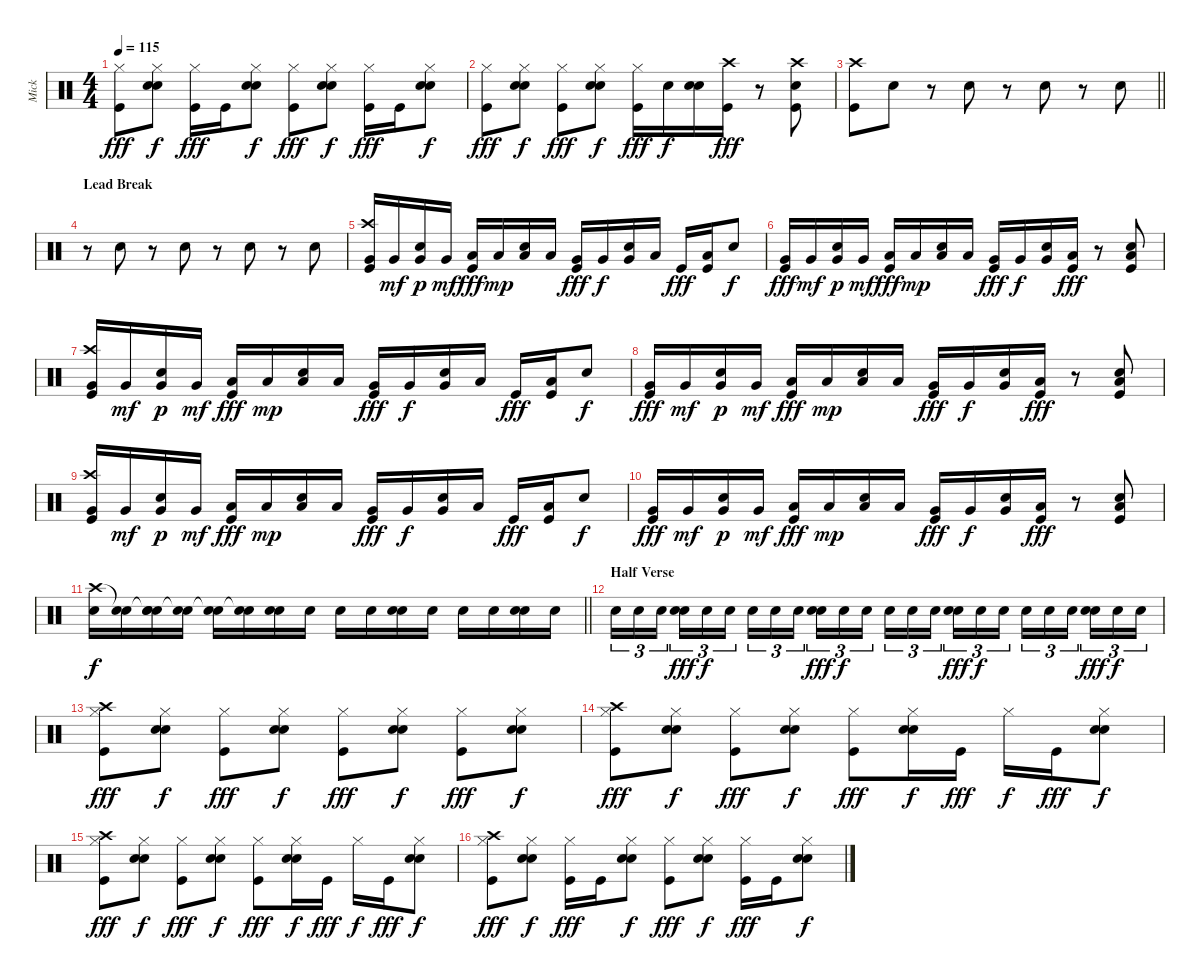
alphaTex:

\track ("Mick" "Mick") {instrument percussion}
\staff {score}
\articulation defaults
\ts (4 4)
\tempo 115
\clef neutral
\ks c
("Hi-Hat (closed)" "Kick (hit)").8{dy fff} ("Hand Clap (hit)" "Hi-Hat (closed)" "Electric Snare (hit)").8{dy f} ("Hi-Hat (closed)" "Kick (hit)").16{dy fff} "Kick (hit)".16 ("Hand Clap (hit)" "Hi-Hat (closed)" "Electric Snare (hit)").8{dy f} ("Hi-Hat (closed)" "Kick (hit)").8{dy fff} ("Hand Clap (hit)" "Hi-Hat (closed)" "Electric Snare (hit)").8{dy f} ("Hi-Hat (closed)" "Kick (hit)").16{dy fff} "Kick (hit)".16 ("Hand Clap (hit)" "Hi-Hat (closed)" "Electric Snare (hit)").8{dy f} |
("Hi-Hat (closed)" "Kick (hit)").8{dy fff} ("Hand Clap (hit)" "Hi-Hat (closed)" "Electric Snare (hit)").8{dy f} ("Hi-Hat (closed)" "Kick (hit)").8{dy fff} ("Hand Clap (hit)" "Hi-Hat (closed)" "Electric Snare (hit)").8{dy f} ("Hi-Hat (closed)" "Kick (hit)").16{dy fff} "Electric Snare (hit)".16{dy f} ("Hand Clap (hit)" "Electric Snare (hit)").16 ("Crash high (hit)" "Kick (hit)").16{dy fff} r.8 ("Crash high (hit)" "Hand Clap (hit)" "Kick (hit)").8 |
\barLineRight lightlight
("Crash high (hit)" "Kick (hit)").8 "Hand Clap (hit)".8 r.8 "Hand Clap (hit)".8 r.8 "Hand Clap (hit)".8 r.8 "Hand Clap (hit)".8 |
\section ("" "Lead Break")
r.8 "Hand Clap (hit)".8 r.8 "Hand Clap (hit)".8 r.8 "Hand Clap (hit)".8 r.8 "Hand Clap (hit)".8 |
("Crash high (hit)" "Very Low Tom (hit)" "Kick (hit)").16 "Very Low Tom (hit)".16{dy mf} ("Hand Clap (hit)" "Very Low Tom (hit)").16{dy p} "Very Low Tom (hit)".16{dy mf} ("Low Floor Tom (hit)" "Kick (hit)").16{dy fff} "Low Floor Tom (hit)".16{dy mp} ("Hand Clap (hit)" "Low Floor Tom (hit)").16 "Low Floor Tom (hit)".16 ("Very Low Tom (hit)" "Kick (hit)").16{dy fff} "Very Low Tom (hit)".16{dy f} ("Hand Clap (hit)" "Very Low Tom (hit)").16 "Low Floor Tom (hit)".16 "Kick (hit)".16{dy fff} ("Low Floor Tom (hit)" "Kick (hit)").16 "Hand Clap (hit)".8{dy f} |
("Very Low Tom (hit)" "Kick (hit)").16{dy fff} "Very Low Tom (hit)".16{dy mf} ("Hand Clap (hit)" "Very Low Tom (hit)").16{dy p} "Very Low Tom (hit)".16{dy mf} ("Low Floor Tom (hit)" "Kick (hit)").16{dy fff} "Low Floor Tom (hit)".16{dy mp} ("Hand Clap (hit)" "Low Floor Tom (hit)").16 "Low Floor Tom (hit)".16 ("Very Low Tom (hit)" "Kick (hit)").16{dy fff} "Very Low Tom (hit)".16{dy f} ("Hand Clap (hit)" "Very Low Tom (hit)").16 ("Low Floor Tom (hit)" "Kick (hit)").16{dy fff} r.8 ("Hand Clap (hit)" "Low Floor Tom (hit)" "Kick (hit)").8 |
("Crash high (hit)" "Very Low Tom (hit)" "Kick (hit)").16 "Very Low Tom (hit)".16{dy mf} ("Hand Clap (hit)" "Very Low Tom (hit)").16{dy p} "Very Low Tom (hit)".16{dy mf} ("Low Floor Tom (hit)" "Kick (hit)").16{dy fff} "Low Floor Tom (hit)".16{dy mp} ("Hand Clap (hit)" "Low Floor Tom (hit)").16 "Low Floor Tom (hit)".16 ("Very Low Tom (hit)" "Kick (hit)").16{dy fff} "Very Low Tom (hit)".16{dy f} ("Hand Clap (hit)" "Very Low Tom (hit)").16 "Low Floor Tom (hit)".16 "Kick (hit)".16{dy fff} ("Low Floor Tom (hit)" "Kick (hit)").16 "Hand Clap (hit)".8{dy f} |
("Very Low Tom (hit)" "Kick (hit)").16{dy fff} "Very Low Tom (hit)".16{dy mf} ("Hand Clap (hit)" "Very Low Tom (hit)").16{dy p} "Very Low Tom (hit)".16{dy mf} ("Low Floor Tom (hit)" "Kick (hit)").16{dy fff} "Low Floor Tom (hit)".16{dy mp} ("Hand Clap (hit)" "Low Floor Tom (hit)").16 "Low Floor Tom (hit)".16 ("Very Low Tom (hit)" "Kick (hit)").16{dy fff} "Very Low Tom (hit)".16{dy f} ("Hand Clap (hit)" "Very Low Tom (hit)").16 ("Low Floor Tom (hit)" "Kick (hit)").16{dy fff} r.8 ("Hand Clap (hit)" "Low Floor Tom (hit)" "Kick (hit)").8 |
("Crash high (hit)" "Very Low Tom (hit)" "Kick (hit)").16 "Very Low Tom (hit)".16{dy mf} ("Hand Clap (hit)" "Very Low Tom (hit)").16{dy p} "Very Low Tom (hit)".16{dy mf} ("Low Floor Tom (hit)" "Kick (hit)").16{dy fff} "Low Floor Tom (hit)".16{dy mp} ("Hand Clap (hit)" "Low Floor Tom (hit)").16 "Low Floor Tom (hit)".16 ("Very Low Tom (hit)" "Kick (hit)").16{dy fff} "Very Low Tom (hit)".16{dy f} ("Hand Clap (hit)" "Very Low Tom (hit)").16 "Low Floor Tom (hit)".16 "Kick (hit)".16{dy fff} ("Low Floor Tom (hit)" "Kick (hit)").16 "Hand Clap (hit)".8{dy f} |
("Very Low Tom (hit)" "Kick (hit)").16{dy fff} "Very Low Tom (hit)".16{dy mf} ("Hand Clap (hit)" "Very Low Tom (hit)").16{dy p} "Very Low Tom (hit)".16{dy mf} ("Low Floor Tom (hit)" "Kick (hit)").16{dy fff} "Low Floor Tom (hit)".16{dy mp} ("Hand Clap (hit)" "Low Floor Tom (hit)").16 "Low Floor Tom (hit)".16 ("Very Low Tom (hit)" "Kick (hit)").16{dy fff} "Very Low Tom (hit)".16{dy f} ("Hand Clap (hit)" "Very Low Tom (hit)").16 ("Low Floor Tom (hit)" "Kick (hit)").16{dy fff} r.8 ("Hand Clap (hit)" "Low Floor Tom (hit)" "Kick (hit)").8 |
\barLineRight lightlight
("Crash high (hit)" "Electric Snare (hit)").16{dy f} ("Snare (hit)"{t} "Electric Snare (hit)").16 ("Hand Clap (hit)"{t} "Hand Clap (hit)" "Electric Snare (hit)").16 ("Snare (hit)"{t} "Electric Snare (hit)").16 ("Snare (hit)"{t} "Electric Snare (hit)").16 ("Snare (hit)"{t} "Electric Snare (hit)").16 ("Hand Clap (hit)" "Electric Snare (hit)").16 "Electric Snare (hit)".16 "Electric Snare (hit)".16 "Electric Snare (hit)".16 ("Hand Clap (hit)" "Electric Snare (hit)").16 "Electric Snare (hit)".16 "Electric Snare (hit)".16 "Electric Snare (hit)".16 ("Hand Clap (hit)" "Electric Snare (hit)").16 "Electric Snare (hit)".16 |
\section ("" "Half Verse")
"Electric Snare (hit)".16{tu (3 2)} "Electric Snare (hit)".16{tu (3 2)} "Electric Snare (hit)".16{tu (3 2) beam splitsecondary} ("Hand Clap (hit)" "Electric Snare (hit)").16{tu (3 2) dy fff} "Electric Snare (hit)".16{tu (3 2) dy f} "Electric Snare (hit)".16{tu (3 2)} "Electric Snare (hit)".16{tu (3 2)} "Electric Snare (hit)".16{tu (3 2)} "Electric Snare (hit)".16{tu (3 2) beam splitsecondary} ("Hand Clap (hit)" "Electric Snare (hit)").16{tu (3 2) dy fff} "Electric Snare (hit)".16{tu (3 2) dy f} "Electric Snare (hit)".16{tu (3 2)} "Electric Snare (hit)".16{tu (3 2)} "Electric Snare (hit)".16{tu (3 2)} "Electric Snare (hit)".16{tu (3 2) beam splitsecondary} ("Hand Clap (hit)" "Electric Snare (hit)").16{tu (3 2) dy fff} "Electric Snare (hit)".16{tu (3 2) dy f} "Electric Snare (hit)".16{tu (3 2)} "Electric Snare (hit)".16{tu (3 2)} "Electric Snare (hit)".16{tu (3 2)} "Electric Snare (hit)".16{tu (3 2) beam splitsecondary} ("Hand Clap (hit)" "Electric Snare (hit)").16{tu (3 2) dy fff} "Electric Snare (hit)".16{tu (3 2) dy f} "Electric Snare (hit)".16{tu (3 2)} |
("Crash high (hit)" "Hi-Hat (closed)" "Kick (hit)").8{dy fff} ("Hand Clap (hit)" "Hi-Hat (closed)" "Electric Snare (hit)").8{dy f} ("Hi-Hat (closed)" "Kick (hit)").8{dy fff} ("Hand Clap (hit)" "Hi-Hat (closed)" "Electric Snare (hit)").8{dy f} ("Hi-Hat (closed)" "Kick (hit)").8{dy fff} ("Hand Clap (hit)" "Hi-Hat (closed)" "Electric Snare (hit)").8{dy f} ("Hi-Hat (closed)" "Kick (hit)").8{dy fff} ("Hand Clap (hit)" "Hi-Hat (closed)" "Electric Snare (hit)").8{dy f} |
("Crash high (hit)" "Hi-Hat (closed)" "Kick (hit)").8{dy fff} ("Hand Clap (hit)" "Hi-Hat (closed)" "Electric Snare (hit)").8{dy f} ("Hi-Hat (closed)" "Kick (hit)").8{dy fff} ("Hand Clap (hit)" "Hi-Hat (closed)" "Electric Snare (hit)").8{dy f} ("Hi-Hat (closed)" "Kick (hit)").8{dy fff} ("Hand Clap (hit)" "Hi-Hat (closed)" "Electric Snare (hit)").16{dy f} "Kick (hit)".16{dy fff} "Hi-Hat (closed)".16{dy f} "Kick (hit)".16{dy fff} ("Hand Clap (hit)" "Hi-Hat (closed)" "Electric Snare (hit)").8{dy f} |
("Crash high (hit)" "Hi-Hat (closed)" "Kick (hit)").8{dy fff} ("Hand Clap (hit)" "Hi-Hat (closed)" "Electric Snare (hit)").8{dy f} ("Hi-Hat (closed)" "Kick (hit)").8{dy fff} ("Hand Clap (hit)" "Hi-Hat (closed)" "Electric Snare (hit)").8{dy f} ("Hi-Hat (closed)" "Kick (hit)").8{dy fff} ("Hand Clap (hit)" "Hi-Hat (closed)" "Electric Snare (hit)").16{dy f} "Kick (hit)".16{dy fff} "Hi-Hat (closed)".16{dy f} "Kick (hit)".16{dy fff} ("Hand Clap (hit)" "Hi-Hat (closed)" "Electric Snare (hit)").8{dy f} |
("Crash high (hit)" "Hi-Hat (closed)" "Kick (hit)").8{dy fff} ("Hand Clap (hit)" "Hi-Hat (closed)" "Electric Snare (hit)").8{dy f} ("Hi-Hat (closed)" "Kick (hit)").16{dy fff} "Kick (hit)".16 ("Hand Clap (hit)" "Hi-Hat (closed)" "Electric Snare (hit)").8{dy f} ("Hi-Hat (closed)" "Kick (hit)").8{dy fff} ("Hand Clap (hit)" "Hi-Hat (closed)" "Electric Snare (hit)").8{dy f} ("Hi-Hat (closed)" "Kick (hit)").16{dy fff} "Kick (hit)".16 ("Hand Clap (hit)" "Hi-Hat (closed)" "Electric Snare (hit)").8{dy f}
